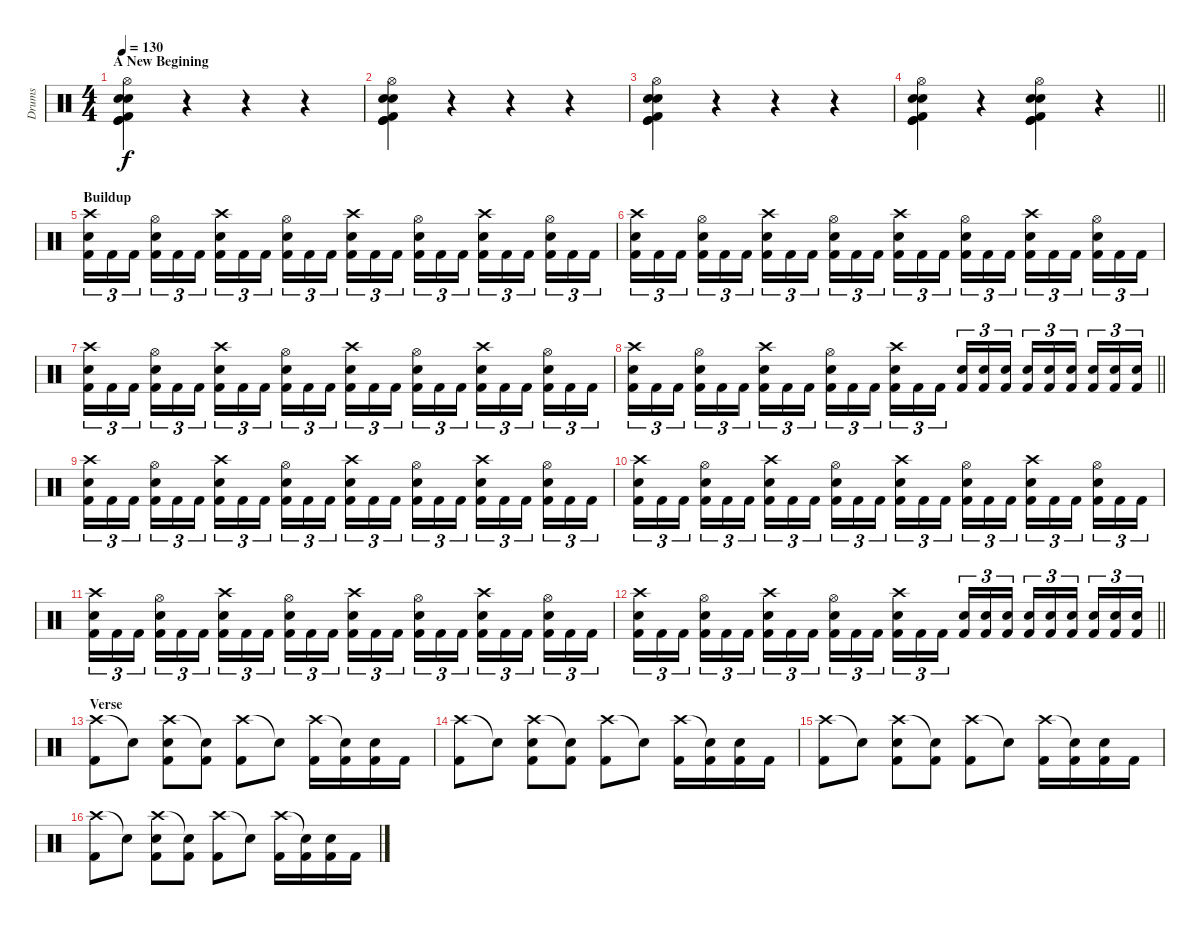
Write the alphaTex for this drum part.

\track ("Drums" "Drums") {instrument percussion}
\staff {score}
\articulation defaults
\ts (4 4)
\section ("" "A New Begining")
\tempo 130
\clef neutral
\ks c
("Hi-Hat (open)" "Electric Snare (hit)" "Kick (hit)" "Kick (hit) 2" "Kick (hit)" "Electric Snare (hit)").4{dy f} r.4 r.4 r.4 |
("Hi-Hat (open)" "Electric Snare (hit)" "Kick (hit)" "Kick (hit) 2" "Kick (hit)" "Electric Snare (hit)").4 r.4 r.4 r.4 |
("Hi-Hat (open)" "Electric Snare (hit)" "Kick (hit)" "Kick (hit) 2" "Kick (hit)" "Electric Snare (hit)").4 r.4 r.4 r.4 |
\barLineRight lightlight
("Hi-Hat (open)" "Electric Snare (hit)" "Kick (hit)" "Kick (hit) 2" "Kick (hit)" "Electric Snare (hit)").4 r.4 ("Hi-Hat (open)" "Electric Snare (hit)" "Kick (hit)" "Kick (hit) 2" "Kick (hit)" "Electric Snare (hit)").4 r.4 |
\section ("" "Buildup")
("Kick (hit) 2" "Snare (hit) 2" "Crash high (hit)").16{tu (3 2)} "Kick (hit) 2".16{tu (3 2)} "Kick (hit) 2".16{tu (3 2) beam splitsecondary} ("Kick (hit) 2" "Snare (hit) 2" "Hi-Hat (open)").16{tu (3 2)} "Kick (hit) 2".16{tu (3 2)} "Kick (hit) 2".16{tu (3 2)} ("Kick (hit) 2" "Snare (hit) 2" "Crash high (hit)").16{tu (3 2)} "Kick (hit) 2".16{tu (3 2)} "Kick (hit) 2".16{tu (3 2) beam splitsecondary} ("Kick (hit) 2" "Snare (hit) 2" "Hi-Hat (open)").16{tu (3 2)} "Kick (hit) 2".16{tu (3 2)} "Kick (hit) 2".16{tu (3 2)} ("Kick (hit) 2" "Snare (hit) 2" "Crash high (hit)").16{tu (3 2)} "Kick (hit) 2".16{tu (3 2)} "Kick (hit) 2".16{tu (3 2) beam splitsecondary} ("Kick (hit) 2" "Snare (hit) 2" "Hi-Hat (open)").16{tu (3 2)} "Kick (hit) 2".16{tu (3 2)} "Kick (hit) 2".16{tu (3 2)} ("Kick (hit) 2" "Snare (hit) 2" "Crash high (hit)").16{tu (3 2)} "Kick (hit) 2".16{tu (3 2)} "Kick (hit) 2".16{tu (3 2) beam splitsecondary} ("Kick (hit) 2" "Snare (hit) 2" "Hi-Hat (open)").16{tu (3 2)} "Kick (hit) 2".16{tu (3 2)} "Kick (hit) 2".16{tu (3 2)} |
("Kick (hit) 2" "Snare (hit) 2" "Crash high (hit)").16{tu (3 2)} "Kick (hit) 2".16{tu (3 2)} "Kick (hit) 2".16{tu (3 2) beam splitsecondary} ("Kick (hit) 2" "Snare (hit) 2" "Hi-Hat (open)").16{tu (3 2)} "Kick (hit) 2".16{tu (3 2)} "Kick (hit) 2".16{tu (3 2)} ("Kick (hit) 2" "Snare (hit) 2" "Crash high (hit)").16{tu (3 2)} "Kick (hit) 2".16{tu (3 2)} "Kick (hit) 2".16{tu (3 2) beam splitsecondary} ("Kick (hit) 2" "Snare (hit) 2" "Hi-Hat (open)").16{tu (3 2)} "Kick (hit) 2".16{tu (3 2)} "Kick (hit) 2".16{tu (3 2)} ("Kick (hit) 2" "Snare (hit) 2" "Crash high (hit)").16{tu (3 2)} "Kick (hit) 2".16{tu (3 2)} "Kick (hit) 2".16{tu (3 2) beam splitsecondary} ("Kick (hit) 2" "Snare (hit) 2" "Hi-Hat (open)").16{tu (3 2)} "Kick (hit) 2".16{tu (3 2)} "Kick (hit) 2".16{tu (3 2)} ("Kick (hit) 2" "Snare (hit) 2" "Crash high (hit)").16{tu (3 2)} "Kick (hit) 2".16{tu (3 2)} "Kick (hit) 2".16{tu (3 2) beam splitsecondary} ("Kick (hit) 2" "Snare (hit) 2" "Hi-Hat (open)").16{tu (3 2)} "Kick (hit) 2".16{tu (3 2)} "Kick (hit) 2".16{tu (3 2)} |
("Kick (hit) 2" "Snare (hit) 2" "Crash high (hit)").16{tu (3 2)} "Kick (hit) 2".16{tu (3 2)} "Kick (hit) 2".16{tu (3 2) beam splitsecondary} ("Kick (hit) 2" "Snare (hit) 2" "Hi-Hat (open)").16{tu (3 2)} "Kick (hit) 2".16{tu (3 2)} "Kick (hit) 2".16{tu (3 2)} ("Kick (hit) 2" "Snare (hit) 2" "Crash high (hit)").16{tu (3 2)} "Kick (hit) 2".16{tu (3 2)} "Kick (hit) 2".16{tu (3 2) beam splitsecondary} ("Kick (hit) 2" "Snare (hit) 2" "Hi-Hat (open)").16{tu (3 2)} "Kick (hit) 2".16{tu (3 2)} "Kick (hit) 2".16{tu (3 2)} ("Kick (hit) 2" "Snare (hit) 2" "Crash high (hit)").16{tu (3 2)} "Kick (hit) 2".16{tu (3 2)} "Kick (hit) 2".16{tu (3 2) beam splitsecondary} ("Kick (hit) 2" "Snare (hit) 2" "Hi-Hat (open)").16{tu (3 2)} "Kick (hit) 2".16{tu (3 2)} "Kick (hit) 2".16{tu (3 2)} ("Kick (hit) 2" "Snare (hit) 2" "Crash high (hit)").16{tu (3 2)} "Kick (hit) 2".16{tu (3 2)} "Kick (hit) 2".16{tu (3 2) beam splitsecondary} ("Kick (hit) 2" "Snare (hit) 2" "Hi-Hat (open)").16{tu (3 2)} "Kick (hit) 2".16{tu (3 2)} "Kick (hit) 2".16{tu (3 2)} |
\barLineRight lightlight
("Kick (hit) 2" "Snare (hit) 2" "Crash high (hit)").16{tu (3 2)} "Kick (hit) 2".16{tu (3 2)} "Kick (hit) 2".16{tu (3 2) beam splitsecondary} ("Kick (hit) 2" "Snare (hit) 2" "Hi-Hat (open)").16{tu (3 2)} "Kick (hit) 2".16{tu (3 2)} "Kick (hit) 2".16{tu (3 2)} ("Kick (hit) 2" "Snare (hit) 2" "Crash high (hit)").16{tu (3 2)} "Kick (hit) 2".16{tu (3 2)} "Kick (hit) 2".16{tu (3 2) beam splitsecondary} ("Kick (hit) 2" "Snare (hit) 2" "Hi-Hat (open)").16{tu (3 2)} "Kick (hit) 2".16{tu (3 2)} "Kick (hit) 2".16{tu (3 2)} ("Kick (hit) 2" "Snare (hit) 2" "Crash high (hit)").16{tu (3 2)} "Kick (hit) 2".16{tu (3 2)} "Kick (hit) 2".16{tu (3 2) beam splitsecondary} ("Kick (hit) 2" "Snare (hit) 2").16{tu (3 2)} ("Kick (hit) 2" "Snare (hit) 2").16{tu (3 2)} ("Kick (hit) 2" "Snare (hit) 2").16{tu (3 2)} ("Kick (hit) 2" "Snare (hit) 2").16{tu (3 2)} ("Kick (hit) 2" "Snare (hit) 2").16{tu (3 2)} ("Kick (hit) 2" "Snare (hit) 2").16{tu (3 2) beam splitsecondary} ("Kick (hit) 2" "Snare (hit) 2").16{tu (3 2)} ("Kick (hit) 2" "Snare (hit) 2").16{tu (3 2)} ("Kick (hit) 2" "Snare (hit) 2").16{tu (3 2)} |
("Kick (hit) 2" "Snare (hit) 2" "Crash high (hit)").16{tu (3 2)} "Kick (hit) 2".16{tu (3 2)} "Kick (hit) 2".16{tu (3 2) beam splitsecondary} ("Kick (hit) 2" "Snare (hit) 2" "Hi-Hat (open)").16{tu (3 2)} "Kick (hit) 2".16{tu (3 2)} "Kick (hit) 2".16{tu (3 2)} ("Kick (hit) 2" "Snare (hit) 2" "Crash high (hit)").16{tu (3 2)} "Kick (hit) 2".16{tu (3 2)} "Kick (hit) 2".16{tu (3 2) beam splitsecondary} ("Kick (hit) 2" "Snare (hit) 2" "Hi-Hat (open)").16{tu (3 2)} "Kick (hit) 2".16{tu (3 2)} "Kick (hit) 2".16{tu (3 2)} ("Kick (hit) 2" "Snare (hit) 2" "Crash high (hit)").16{tu (3 2)} "Kick (hit) 2".16{tu (3 2)} "Kick (hit) 2".16{tu (3 2) beam splitsecondary} ("Kick (hit) 2" "Snare (hit) 2" "Hi-Hat (open)").16{tu (3 2)} "Kick (hit) 2".16{tu (3 2)} "Kick (hit) 2".16{tu (3 2)} ("Kick (hit) 2" "Snare (hit) 2" "Crash high (hit)").16{tu (3 2)} "Kick (hit) 2".16{tu (3 2)} "Kick (hit) 2".16{tu (3 2) beam splitsecondary} ("Kick (hit) 2" "Snare (hit) 2" "Hi-Hat (open)").16{tu (3 2)} "Kick (hit) 2".16{tu (3 2)} "Kick (hit) 2".16{tu (3 2)} |
("Kick (hit) 2" "Snare (hit) 2" "Crash high (hit)").16{tu (3 2)} "Kick (hit) 2".16{tu (3 2)} "Kick (hit) 2".16{tu (3 2) beam splitsecondary} ("Kick (hit) 2" "Snare (hit) 2" "Hi-Hat (open)").16{tu (3 2)} "Kick (hit) 2".16{tu (3 2)} "Kick (hit) 2".16{tu (3 2)} ("Kick (hit) 2" "Snare (hit) 2" "Crash high (hit)").16{tu (3 2)} "Kick (hit) 2".16{tu (3 2)} "Kick (hit) 2".16{tu (3 2) beam splitsecondary} ("Kick (hit) 2" "Snare (hit) 2" "Hi-Hat (open)").16{tu (3 2)} "Kick (hit) 2".16{tu (3 2)} "Kick (hit) 2".16{tu (3 2)} ("Kick (hit) 2" "Snare (hit) 2" "Crash high (hit)").16{tu (3 2)} "Kick (hit) 2".16{tu (3 2)} "Kick (hit) 2".16{tu (3 2) beam splitsecondary} ("Kick (hit) 2" "Snare (hit) 2" "Hi-Hat (open)").16{tu (3 2)} "Kick (hit) 2".16{tu (3 2)} "Kick (hit) 2".16{tu (3 2)} ("Kick (hit) 2" "Snare (hit) 2" "Crash high (hit)").16{tu (3 2)} "Kick (hit) 2".16{tu (3 2)} "Kick (hit) 2".16{tu (3 2) beam splitsecondary} ("Kick (hit) 2" "Snare (hit) 2" "Hi-Hat (open)").16{tu (3 2)} "Kick (hit) 2".16{tu (3 2)} "Kick (hit) 2".16{tu (3 2)} |
("Kick (hit) 2" "Snare (hit) 2" "Crash high (hit)").16{tu (3 2)} "Kick (hit) 2".16{tu (3 2)} "Kick (hit) 2".16{tu (3 2) beam splitsecondary} ("Kick (hit) 2" "Snare (hit) 2" "Hi-Hat (open)").16{tu (3 2)} "Kick (hit) 2".16{tu (3 2)} "Kick (hit) 2".16{tu (3 2)} ("Kick (hit) 2" "Snare (hit) 2" "Crash high (hit)").16{tu (3 2)} "Kick (hit) 2".16{tu (3 2)} "Kick (hit) 2".16{tu (3 2) beam splitsecondary} ("Kick (hit) 2" "Snare (hit) 2" "Hi-Hat (open)").16{tu (3 2)} "Kick (hit) 2".16{tu (3 2)} "Kick (hit) 2".16{tu (3 2)} ("Kick (hit) 2" "Snare (hit) 2" "Crash high (hit)").16{tu (3 2)} "Kick (hit) 2".16{tu (3 2)} "Kick (hit) 2".16{tu (3 2) beam splitsecondary} ("Kick (hit) 2" "Snare (hit) 2" "Hi-Hat (open)").16{tu (3 2)} "Kick (hit) 2".16{tu (3 2)} "Kick (hit) 2".16{tu (3 2)} ("Kick (hit) 2" "Snare (hit) 2" "Crash high (hit)").16{tu (3 2)} "Kick (hit) 2".16{tu (3 2)} "Kick (hit) 2".16{tu (3 2) beam splitsecondary} ("Kick (hit) 2" "Snare (hit) 2" "Hi-Hat (open)").16{tu (3 2)} "Kick (hit) 2".16{tu (3 2)} "Kick (hit) 2".16{tu (3 2)} |
\barLineRight lightlight
("Kick (hit) 2" "Snare (hit) 2" "Crash high (hit)").16{tu (3 2)} "Kick (hit) 2".16{tu (3 2)} "Kick (hit) 2".16{tu (3 2) beam splitsecondary} ("Kick (hit) 2" "Snare (hit) 2" "Hi-Hat (open)").16{tu (3 2)} "Kick (hit) 2".16{tu (3 2)} "Kick (hit) 2".16{tu (3 2)} ("Kick (hit) 2" "Snare (hit) 2" "Crash high (hit)").16{tu (3 2)} "Kick (hit) 2".16{tu (3 2)} "Kick (hit) 2".16{tu (3 2) beam splitsecondary} ("Kick (hit) 2" "Snare (hit) 2" "Hi-Hat (open)").16{tu (3 2)} "Kick (hit) 2".16{tu (3 2)} "Kick (hit) 2".16{tu (3 2)} ("Kick (hit) 2" "Snare (hit) 2" "Crash high (hit)").16{tu (3 2)} "Kick (hit) 2".16{tu (3 2)} "Kick (hit) 2".16{tu (3 2) beam splitsecondary} ("Kick (hit) 2" "Snare (hit) 2").16{tu (3 2)} ("Kick (hit) 2" "Snare (hit) 2").16{tu (3 2)} ("Kick (hit) 2" "Snare (hit) 2").16{tu (3 2)} ("Kick (hit) 2" "Snare (hit) 2").16{tu (3 2)} ("Kick (hit) 2" "Snare (hit) 2").16{tu (3 2)} ("Kick (hit) 2" "Snare (hit) 2").16{tu (3 2) beam splitsecondary} ("Kick (hit) 2" "Snare (hit) 2").16{tu (3 2)} ("Kick (hit) 2" "Snare (hit) 2").16{tu (3 2)} ("Kick (hit) 2" "Snare (hit) 2").16{tu (3 2)} |
\section ("" "Verse")
("Crash high (hit)" "Kick (hit) 2").8 "Snare (hit)"{t}.8 ("Crash high (hit)" "Snare (hit) 2" "Kick (hit) 2").8 ("Snare (hit)"{t} "Kick (hit) 2").8 ("Crash high (hit)" "Kick (hit) 2").8 "Snare (hit)"{t}.8 ("Crash high (hit)" "Kick (hit) 2").16 ("Snare (hit)"{t} "Kick (hit) 2").16 ("Snare (hit) 2" "Kick (hit) 2").16 "Kick (hit) 2".16 |
("Crash high (hit)" "Kick (hit) 2").8 "Snare (hit)"{t}.8 ("Crash high (hit)" "Snare (hit) 2" "Kick (hit) 2").8 ("Snare (hit)"{t} "Kick (hit) 2").8 ("Crash high (hit)" "Kick (hit) 2").8 "Snare (hit)"{t}.8 ("Crash high (hit)" "Kick (hit) 2").16 ("Snare (hit)"{t} "Kick (hit) 2").16 ("Snare (hit) 2" "Kick (hit) 2").16 "Kick (hit) 2".16 |
("Crash high (hit)" "Kick (hit) 2").8 "Snare (hit)"{t}.8 ("Crash high (hit)" "Snare (hit) 2" "Kick (hit) 2").8 ("Snare (hit)"{t} "Kick (hit) 2").8 ("Crash high (hit)" "Kick (hit) 2").8 "Snare (hit)"{t}.8 ("Crash high (hit)" "Kick (hit) 2").16 ("Snare (hit)"{t} "Kick (hit) 2").16 ("Snare (hit) 2" "Kick (hit) 2").16 "Kick (hit) 2".16 |
("Crash high (hit)" "Kick (hit) 2").8 "Snare (hit)"{t}.8 ("Crash high (hit)" "Snare (hit) 2" "Kick (hit) 2").8 ("Snare (hit)"{t} "Kick (hit) 2").8 ("Crash high (hit)" "Kick (hit) 2").8 "Snare (hit)"{t}.8 ("Crash high (hit)" "Kick (hit) 2").16 ("Snare (hit)"{t} "Kick (hit) 2").16 ("Snare (hit) 2" "Kick (hit) 2").16 "Kick (hit) 2".16
